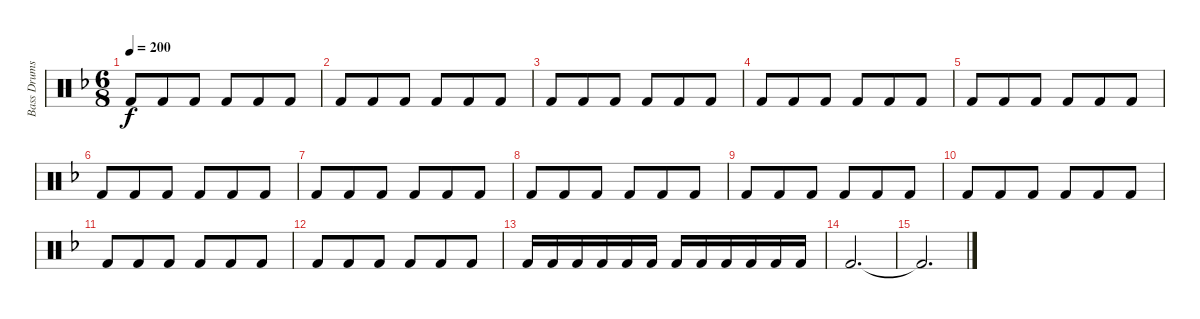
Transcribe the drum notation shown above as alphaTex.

\track ("Bass Drums" "Bass Drums") {instrument percussion}
\staff {score}
\articulation defaults
\ts (6 8)
\tempo 200
\clef neutral
\ks dminor "Kick (hit) 2".8{dy f} "Kick (hit) 2".8 "Kick (hit) 2".8 "Kick (hit) 2".8 "Kick (hit) 2".8 "Kick (hit) 2".8
|
"Kick (hit) 2".8 "Kick (hit) 2".8 "Kick (hit) 2".8 "Kick (hit) 2".8 "Kick (hit) 2".8 "Kick (hit) 2".8 |
"Kick (hit) 2".8 "Kick (hit) 2".8 "Kick (hit) 2".8 "Kick (hit) 2".8 "Kick (hit) 2".8 "Kick (hit) 2".8 |
"Kick (hit) 2".8 "Kick (hit) 2".8 "Kick (hit) 2".8 "Kick (hit) 2".8 "Kick (hit) 2".8 "Kick (hit) 2".8 |
"Kick (hit) 2".8 "Kick (hit) 2".8 "Kick (hit) 2".8 "Kick (hit) 2".8 "Kick (hit) 2".8 "Kick (hit) 2".8 |
"Kick (hit) 2".8 "Kick (hit) 2".8 "Kick (hit) 2".8 "Kick (hit) 2".8 "Kick (hit) 2".8 "Kick (hit) 2".8 |
"Kick (hit) 2".8 "Kick (hit) 2".8 "Kick (hit) 2".8 "Kick (hit) 2".8 "Kick (hit) 2".8 "Kick (hit) 2".8 |
"Kick (hit) 2".8 "Kick (hit) 2".8 "Kick (hit) 2".8 "Kick (hit) 2".8 "Kick (hit) 2".8 "Kick (hit) 2".8 |
"Kick (hit) 2".8 "Kick (hit) 2".8 "Kick (hit) 2".8 "Kick (hit) 2".8 "Kick (hit) 2".8 "Kick (hit) 2".8 |
"Kick (hit) 2".8 "Kick (hit) 2".8 "Kick (hit) 2".8 "Kick (hit) 2".8 "Kick (hit) 2".8 "Kick (hit) 2".8 |
"Kick (hit) 2".8 "Kick (hit) 2".8 "Kick (hit) 2".8 "Kick (hit) 2".8 "Kick (hit) 2".8 "Kick (hit) 2".8 |
"Kick (hit) 2".8 "Kick (hit) 2".8 "Kick (hit) 2".8 "Kick (hit) 2".8 "Kick (hit) 2".8 "Kick (hit) 2".8 |
"Kick (hit) 2".16 "Kick (hit) 2".16 "Kick (hit) 2".16 "Kick (hit) 2".16 "Kick (hit) 2".16 "Kick (hit) 2".16 "Kick (hit) 2".16 "Kick (hit) 2".16 "Kick (hit) 2".16 "Kick (hit) 2".16 "Kick (hit) 2".16 "Kick (hit) 2".16 |
"Kick (hit) 2".2{d} |
"Kick (hit) 2"{t}.2{d}
